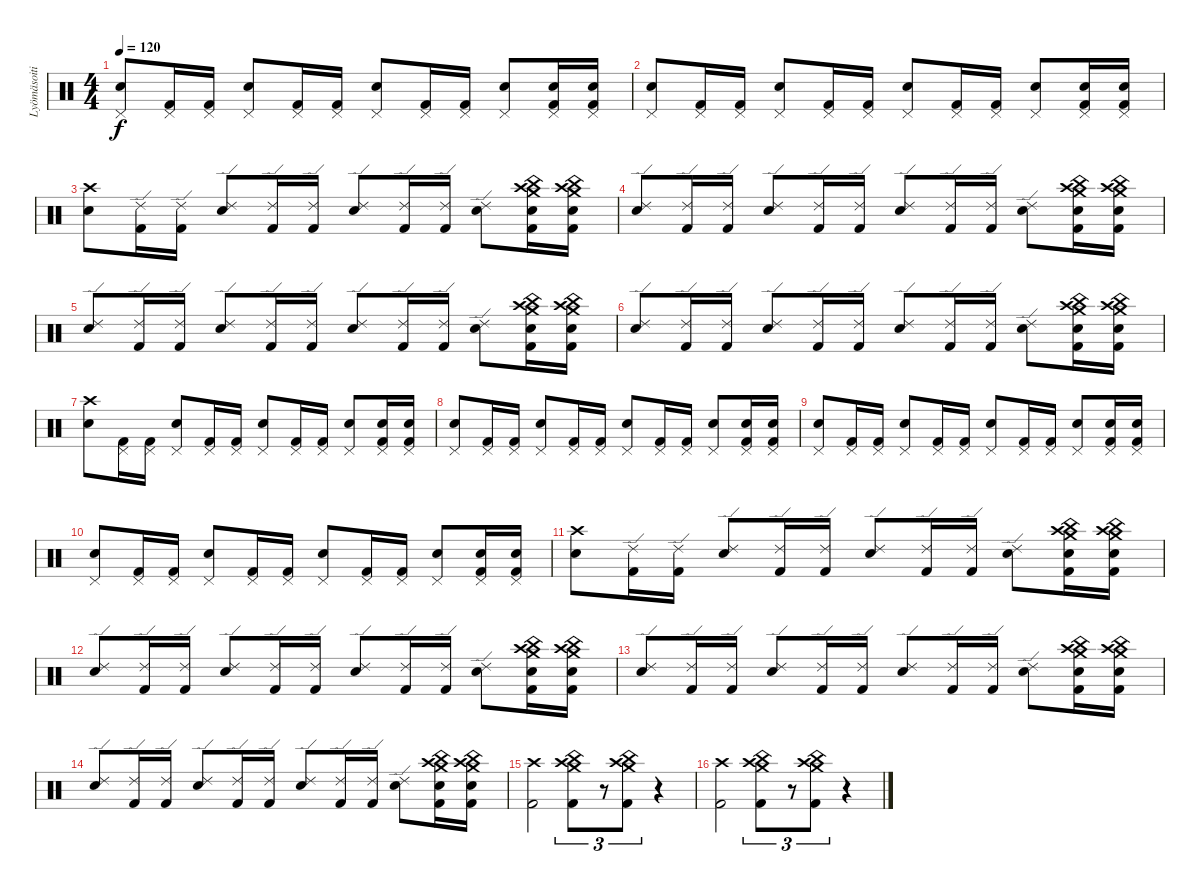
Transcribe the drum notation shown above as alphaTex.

\track ("Lyömäsoitin" "Lyömäsoiti") {instrument percussion}
\staff {score}
\articulation defaults
\ts (4 4)
\tempo 120
\clef neutral
\ks c
("Pedal Hi-Hat (hit)" "Snare (hit) 2").8{dy f} ("Pedal Hi-Hat (hit)" "Kick (hit) 2").16 ("Pedal Hi-Hat (hit)" "Kick (hit) 2").16 ("Pedal Hi-Hat (hit)" "Snare (hit) 2").8 ("Pedal Hi-Hat (hit)" "Kick (hit) 2").16 ("Pedal Hi-Hat (hit)" "Kick (hit) 2").16 ("Pedal Hi-Hat (hit)" "Snare (hit) 2").8 ("Pedal Hi-Hat (hit)" "Kick (hit) 2").16 ("Pedal Hi-Hat (hit)" "Kick (hit) 2").16 ("Pedal Hi-Hat (hit)" "Snare (hit) 2").8 ("Pedal Hi-Hat (hit)" "Snare (hit) 2" "Kick (hit) 2").16 ("Pedal Hi-Hat (hit)" "Snare (hit) 2" "Kick (hit) 2").16 |
("Pedal Hi-Hat (hit)" "Snare (hit) 2").8 ("Pedal Hi-Hat (hit)" "Kick (hit) 2").16 ("Pedal Hi-Hat (hit)" "Kick (hit) 2").16 ("Pedal Hi-Hat (hit)" "Snare (hit) 2").8 ("Pedal Hi-Hat (hit)" "Kick (hit) 2").16 ("Pedal Hi-Hat (hit)" "Kick (hit) 2").16 ("Pedal Hi-Hat (hit)" "Snare (hit) 2").8 ("Pedal Hi-Hat (hit)" "Kick (hit) 2").16 ("Pedal Hi-Hat (hit)" "Kick (hit) 2").16 ("Pedal Hi-Hat (hit)" "Snare (hit) 2").8 ("Pedal Hi-Hat (hit)" "Snare (hit) 2" "Kick (hit) 2").16 ("Pedal Hi-Hat (hit)" "Snare (hit) 2" "Kick (hit) 2").16 |
("Crash high (hit)" "Snare (hit) 2").8 ("Ride (edge) 2" "Kick (hit) 2").16 ("Ride (edge) 2" "Kick (hit) 2").16 ("Ride (edge) 2" "Snare (hit) 2").8 ("Ride (edge) 2" "Kick (hit) 2").16 ("Ride (edge) 2" "Kick (hit) 2").16 ("Ride (edge) 2" "Snare (hit) 2").8 ("Ride (edge) 2" "Kick (hit) 2").16 ("Ride (edge) 2" "Kick (hit) 2").16 ("Ride (edge) 2" "Snare (hit) 2").8 ("Crash high (hit)" "Crash medium (hit)" "China (hit)" "Snare (hit) 2" "Kick (hit) 2").16 ("Crash high (hit)" "Crash medium (hit)" "China (hit)" "Snare (hit) 2" "Kick (hit) 2").16 |
("Ride (edge) 2" "Snare (hit) 2").8 ("Ride (edge) 2" "Kick (hit) 2").16 ("Ride (edge) 2" "Kick (hit) 2").16 ("Ride (edge) 2" "Snare (hit) 2").8 ("Ride (edge) 2" "Kick (hit) 2").16 ("Ride (edge) 2" "Kick (hit) 2").16 ("Ride (edge) 2" "Snare (hit) 2").8 ("Ride (edge) 2" "Kick (hit) 2").16 ("Ride (edge) 2" "Kick (hit) 2").16 ("Ride (edge) 2" "Snare (hit) 2").8 ("Crash high (hit)" "Crash medium (hit)" "China (hit)" "Snare (hit) 2" "Kick (hit) 2").16 ("Crash high (hit)" "Crash medium (hit)" "China (hit)" "Snare (hit) 2" "Kick (hit) 2").16 |
("Ride (edge) 2" "Snare (hit) 2").8 ("Ride (edge) 2" "Kick (hit) 2").16 ("Ride (edge) 2" "Kick (hit) 2").16 ("Ride (edge) 2" "Snare (hit) 2").8 ("Ride (edge) 2" "Kick (hit) 2").16 ("Ride (edge) 2" "Kick (hit) 2").16 ("Ride (edge) 2" "Snare (hit) 2").8 ("Ride (edge) 2" "Kick (hit) 2").16 ("Ride (edge) 2" "Kick (hit) 2").16 ("Ride (edge) 2" "Snare (hit) 2").8 ("Crash high (hit)" "Crash medium (hit)" "China (hit)" "Snare (hit) 2" "Kick (hit) 2").16 ("Crash high (hit)" "Crash medium (hit)" "China (hit)" "Snare (hit) 2" "Kick (hit) 2").16 |
("Ride (edge) 2" "Snare (hit) 2").8 ("Ride (edge) 2" "Kick (hit) 2").16 ("Ride (edge) 2" "Kick (hit) 2").16 ("Ride (edge) 2" "Snare (hit) 2").8 ("Ride (edge) 2" "Kick (hit) 2").16 ("Ride (edge) 2" "Kick (hit) 2").16 ("Ride (edge) 2" "Snare (hit) 2").8 ("Ride (edge) 2" "Kick (hit) 2").16 ("Ride (edge) 2" "Kick (hit) 2").16 ("Ride (edge) 2" "Snare (hit) 2").8 ("Crash high (hit)" "Crash medium (hit)" "China (hit)" "Snare (hit) 2" "Kick (hit) 2").16 ("Crash high (hit)" "Crash medium (hit)" "China (hit)" "Snare (hit) 2" "Kick (hit) 2").16 |
("Crash high (hit)" "Snare (hit) 2").8 ("Pedal Hi-Hat (hit)" "Kick (hit) 2").16 ("Pedal Hi-Hat (hit)" "Kick (hit) 2").16 ("Pedal Hi-Hat (hit)" "Snare (hit) 2").8 ("Pedal Hi-Hat (hit)" "Kick (hit) 2").16 ("Pedal Hi-Hat (hit)" "Kick (hit) 2").16 ("Pedal Hi-Hat (hit)" "Snare (hit) 2").8 ("Pedal Hi-Hat (hit)" "Kick (hit) 2").16 ("Pedal Hi-Hat (hit)" "Kick (hit) 2").16 ("Pedal Hi-Hat (hit)" "Snare (hit) 2").8 ("Pedal Hi-Hat (hit)" "Snare (hit) 2" "Kick (hit) 2").16 ("Pedal Hi-Hat (hit)" "Snare (hit) 2" "Kick (hit) 2").16 |
("Pedal Hi-Hat (hit)" "Snare (hit) 2").8 ("Pedal Hi-Hat (hit)" "Kick (hit) 2").16 ("Pedal Hi-Hat (hit)" "Kick (hit) 2").16 ("Pedal Hi-Hat (hit)" "Snare (hit) 2").8 ("Pedal Hi-Hat (hit)" "Kick (hit) 2").16 ("Pedal Hi-Hat (hit)" "Kick (hit) 2").16 ("Pedal Hi-Hat (hit)" "Snare (hit) 2").8 ("Pedal Hi-Hat (hit)" "Kick (hit) 2").16 ("Pedal Hi-Hat (hit)" "Kick (hit) 2").16 ("Pedal Hi-Hat (hit)" "Snare (hit) 2").8 ("Pedal Hi-Hat (hit)" "Snare (hit) 2" "Kick (hit) 2").16 ("Pedal Hi-Hat (hit)" "Snare (hit) 2" "Kick (hit) 2").16 |
("Pedal Hi-Hat (hit)" "Snare (hit) 2").8 ("Pedal Hi-Hat (hit)" "Kick (hit) 2").16 ("Pedal Hi-Hat (hit)" "Kick (hit) 2").16 ("Pedal Hi-Hat (hit)" "Snare (hit) 2").8 ("Pedal Hi-Hat (hit)" "Kick (hit) 2").16 ("Pedal Hi-Hat (hit)" "Kick (hit) 2").16 ("Pedal Hi-Hat (hit)" "Snare (hit) 2").8 ("Pedal Hi-Hat (hit)" "Kick (hit) 2").16 ("Pedal Hi-Hat (hit)" "Kick (hit) 2").16 ("Pedal Hi-Hat (hit)" "Snare (hit) 2").8 ("Pedal Hi-Hat (hit)" "Snare (hit) 2" "Kick (hit) 2").16 ("Pedal Hi-Hat (hit)" "Snare (hit) 2" "Kick (hit) 2").16 |
("Pedal Hi-Hat (hit)" "Snare (hit) 2").8 ("Pedal Hi-Hat (hit)" "Kick (hit) 2").16 ("Pedal Hi-Hat (hit)" "Kick (hit) 2").16 ("Pedal Hi-Hat (hit)" "Snare (hit) 2").8 ("Pedal Hi-Hat (hit)" "Kick (hit) 2").16 ("Pedal Hi-Hat (hit)" "Kick (hit) 2").16 ("Pedal Hi-Hat (hit)" "Snare (hit) 2").8 ("Pedal Hi-Hat (hit)" "Kick (hit) 2").16 ("Pedal Hi-Hat (hit)" "Kick (hit) 2").16 ("Pedal Hi-Hat (hit)" "Snare (hit) 2").8 ("Pedal Hi-Hat (hit)" "Snare (hit) 2" "Kick (hit) 2").16 ("Pedal Hi-Hat (hit)" "Snare (hit) 2" "Kick (hit) 2").16 |
("Crash high (hit)" "Snare (hit) 2").8 ("Ride (edge) 2" "Kick (hit) 2").16 ("Ride (edge) 2" "Kick (hit) 2").16 ("Ride (edge) 2" "Snare (hit) 2").8 ("Ride (edge) 2" "Kick (hit) 2").16 ("Ride (edge) 2" "Kick (hit) 2").16 ("Ride (edge) 2" "Snare (hit) 2").8 ("Ride (edge) 2" "Kick (hit) 2").16 ("Ride (edge) 2" "Kick (hit) 2").16 ("Ride (edge) 2" "Snare (hit) 2").8 ("Crash high (hit)" "Crash medium (hit)" "China (hit)" "Snare (hit) 2" "Kick (hit) 2").16 ("Crash high (hit)" "Crash medium (hit)" "China (hit)" "Snare (hit) 2" "Kick (hit) 2").16 |
("Ride (edge) 2" "Snare (hit) 2").8 ("Ride (edge) 2" "Kick (hit) 2").16 ("Ride (edge) 2" "Kick (hit) 2").16 ("Ride (edge) 2" "Snare (hit) 2").8 ("Ride (edge) 2" "Kick (hit) 2").16 ("Ride (edge) 2" "Kick (hit) 2").16 ("Ride (edge) 2" "Snare (hit) 2").8 ("Ride (edge) 2" "Kick (hit) 2").16 ("Ride (edge) 2" "Kick (hit) 2").16 ("Ride (edge) 2" "Snare (hit) 2").8 ("Crash high (hit)" "Crash medium (hit)" "China (hit)" "Snare (hit) 2" "Kick (hit) 2").16 ("Crash high (hit)" "Crash medium (hit)" "China (hit)" "Snare (hit) 2" "Kick (hit) 2").16 |
("Ride (edge) 2" "Snare (hit) 2").8 ("Ride (edge) 2" "Kick (hit) 2").16 ("Ride (edge) 2" "Kick (hit) 2").16 ("Ride (edge) 2" "Snare (hit) 2").8 ("Ride (edge) 2" "Kick (hit) 2").16 ("Ride (edge) 2" "Kick (hit) 2").16 ("Ride (edge) 2" "Snare (hit) 2").8 ("Ride (edge) 2" "Kick (hit) 2").16 ("Ride (edge) 2" "Kick (hit) 2").16 ("Ride (edge) 2" "Snare (hit) 2").8 ("Crash high (hit)" "Crash medium (hit)" "China (hit)" "Snare (hit) 2" "Kick (hit) 2").16 ("Crash high (hit)" "Crash medium (hit)" "China (hit)" "Snare (hit) 2" "Kick (hit) 2").16 |
("Ride (edge) 2" "Snare (hit) 2").8 ("Ride (edge) 2" "Kick (hit) 2").16 ("Ride (edge) 2" "Kick (hit) 2").16 ("Ride (edge) 2" "Snare (hit) 2").8 ("Ride (edge) 2" "Kick (hit) 2").16 ("Ride (edge) 2" "Kick (hit) 2").16 ("Ride (edge) 2" "Snare (hit) 2").8 ("Ride (edge) 2" "Kick (hit) 2").16 ("Ride (edge) 2" "Kick (hit) 2").16 ("Ride (edge) 2" "Snare (hit) 2").8 ("Crash high (hit)" "Crash medium (hit)" "China (hit)" "Snare (hit) 2" "Kick (hit) 2").16 ("Crash high (hit)" "Crash medium (hit)" "China (hit)" "Snare (hit) 2" "Kick (hit) 2").16 |
("Crash high (hit)" "Kick (hit) 2").2 ("Crash medium (hit)" "China (hit)" "Crash high (hit)" "Kick (hit) 2").8{tu (3 2)} r.8{tu (3 2)} ("Crash medium (hit)" "China (hit)" "Crash high (hit)" "Kick (hit) 2").8{tu (3 2)} r.4 |
("Crash high (hit)" "Kick (hit) 2").2 ("Crash medium (hit)" "China (hit)" "Crash high (hit)" "Kick (hit) 2").8{tu (3 2)} r.8{tu (3 2)} ("Crash medium (hit)" "China (hit)" "Crash high (hit)" "Kick (hit) 2").8{tu (3 2)} r.4
